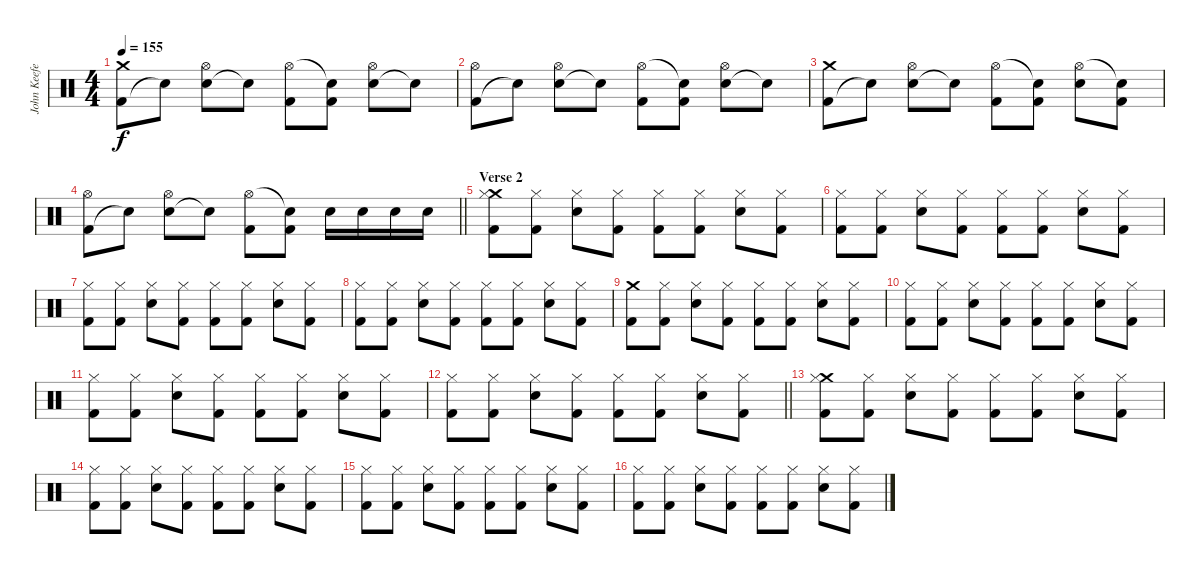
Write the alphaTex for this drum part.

\track ("John Keefe (Percussion)" "John Keefe") {instrument percussion}
\staff {score}
\articulation defaults
\ts (4 4)
\tempo 155
\clef neutral
\ks c
("Kick (hit) 2" "Crash medium (hit)").8{dy f} "Snare (hit)"{t}.8 ("Electric Snare (hit)" "Hi-Hat (open)").8 "Snare (hit)"{t}.8 ("Kick (hit) 2" "Hi-Hat (open)").8 ("Kick (hit) 2" "Snare (hit)"{t}).8 ("Electric Snare (hit)" "Hi-Hat (open)").8 "Snare (hit)"{t}.8 |
("Kick (hit) 2" "Hi-Hat (open)").8 "Snare (hit)"{t}.8 ("Electric Snare (hit)" "Hi-Hat (open)").8 "Snare (hit)"{t}.8 ("Kick (hit) 2" "Hi-Hat (open)").8 ("Kick (hit) 2" "Snare (hit)"{t}).8 ("Electric Snare (hit)" "Hi-Hat (open)").8 "Snare (hit)"{t}.8 |
("Kick (hit) 2" "Crash medium (hit)").8 "Snare (hit)"{t}.8 ("Electric Snare (hit)" "Hi-Hat (open)").8 "Snare (hit)"{t}.8 ("Kick (hit) 2" "Hi-Hat (open)").8 ("Kick (hit) 2" "Snare (hit)"{t}).8 ("Electric Snare (hit)" "Hi-Hat (open)").8 ("Kick (hit) 2" "Snare (hit)"{t}).8 |
\barLineRight lightlight
("Kick (hit) 2" "Hi-Hat (open)").8 "Snare (hit)"{t}.8 ("Electric Snare (hit)" "Hi-Hat (open)").8 "Snare (hit)"{t}.8 ("Kick (hit) 2" "Hi-Hat (open)").8 ("Kick (hit) 2" "Snare (hit)"{t}).8 "Electric Snare (hit)".16 "Electric Snare (hit)".16 "Electric Snare (hit)".16 "Electric Snare (hit)".16 |
\section ("" "Verse 2")
("Kick (hit) 2" "Crash medium (hit)" "Hi-Hat (closed)").8 ("Kick (hit) 2" "Hi-Hat (closed)").8 ("Electric Snare (hit)" "Hi-Hat (closed)").8 ("Kick (hit) 2" "Hi-Hat (closed)").8 ("Kick (hit) 2" "Hi-Hat (closed)").8 ("Kick (hit) 2" "Hi-Hat (closed)").8 ("Electric Snare (hit)" "Hi-Hat (closed)").8 ("Kick (hit) 2" "Hi-Hat (closed)").8 |
("Kick (hit) 2" "Hi-Hat (closed)").8 ("Kick (hit) 2" "Hi-Hat (closed)").8 ("Electric Snare (hit)" "Hi-Hat (closed)").8 ("Kick (hit) 2" "Hi-Hat (closed)").8 ("Kick (hit) 2" "Hi-Hat (closed)").8 ("Kick (hit) 2" "Hi-Hat (closed)").8 ("Electric Snare (hit)" "Hi-Hat (closed)").8 ("Kick (hit) 2" "Hi-Hat (closed)").8 |
("Kick (hit) 2" "Hi-Hat (closed)").8 ("Kick (hit) 2" "Hi-Hat (closed)").8 ("Electric Snare (hit)" "Hi-Hat (closed)").8 ("Kick (hit) 2" "Hi-Hat (closed)").8 ("Kick (hit) 2" "Hi-Hat (closed)").8 ("Kick (hit) 2" "Hi-Hat (closed)").8 ("Electric Snare (hit)" "Hi-Hat (closed)").8 ("Kick (hit) 2" "Hi-Hat (closed)").8 |
("Kick (hit) 2" "Hi-Hat (closed)").8 ("Kick (hit) 2" "Hi-Hat (closed)").8 ("Electric Snare (hit)" "Hi-Hat (closed)").8 ("Kick (hit) 2" "Hi-Hat (closed)").8 ("Kick (hit) 2" "Hi-Hat (closed)").8 ("Kick (hit) 2" "Hi-Hat (closed)").8 ("Electric Snare (hit)" "Hi-Hat (closed)").8 ("Kick (hit) 2" "Hi-Hat (closed)").8 |
("Kick (hit) 2" "Crash medium (hit)").8 ("Kick (hit) 2" "Hi-Hat (closed)").8 ("Electric Snare (hit)" "Hi-Hat (closed)").8 ("Kick (hit) 2" "Hi-Hat (closed)").8 ("Kick (hit) 2" "Hi-Hat (closed)").8 ("Kick (hit) 2" "Hi-Hat (closed)").8 ("Electric Snare (hit)" "Hi-Hat (closed)").8 ("Kick (hit) 2" "Hi-Hat (closed)").8 |
("Kick (hit) 2" "Hi-Hat (closed)").8 ("Kick (hit) 2" "Hi-Hat (closed)").8 ("Electric Snare (hit)" "Hi-Hat (closed)").8 ("Kick (hit) 2" "Hi-Hat (closed)").8 ("Kick (hit) 2" "Hi-Hat (closed)").8 ("Kick (hit) 2" "Hi-Hat (closed)").8 ("Electric Snare (hit)" "Hi-Hat (closed)").8 ("Kick (hit) 2" "Hi-Hat (closed)").8 |
("Kick (hit) 2" "Hi-Hat (closed)").8 ("Kick (hit) 2" "Hi-Hat (closed)").8 ("Electric Snare (hit)" "Hi-Hat (closed)").8 ("Kick (hit) 2" "Hi-Hat (closed)").8 ("Kick (hit) 2" "Hi-Hat (closed)").8 ("Kick (hit) 2" "Hi-Hat (closed)").8 ("Electric Snare (hit)" "Hi-Hat (closed)").8 ("Kick (hit) 2" "Hi-Hat (closed)").8 |
\barLineRight lightlight
("Kick (hit) 2" "Hi-Hat (closed)").8 ("Kick (hit) 2" "Hi-Hat (closed)").8 ("Electric Snare (hit)" "Hi-Hat (closed)").8 ("Kick (hit) 2" "Hi-Hat (closed)").8 ("Kick (hit) 2" "Hi-Hat (closed)").8 ("Kick (hit) 2" "Hi-Hat (closed)").8 ("Electric Snare (hit)" "Hi-Hat (closed)").8 ("Kick (hit) 2" "Hi-Hat (closed)").8 |
("Kick (hit) 2" "Crash medium (hit)" "Hi-Hat (closed)").8 ("Kick (hit) 2" "Hi-Hat (closed)").8 ("Electric Snare (hit)" "Hi-Hat (closed)").8 ("Kick (hit) 2" "Hi-Hat (closed)").8 ("Kick (hit) 2" "Hi-Hat (closed)").8 ("Kick (hit) 2" "Hi-Hat (closed)").8 ("Electric Snare (hit)" "Hi-Hat (closed)").8 ("Kick (hit) 2" "Hi-Hat (closed)").8 |
("Kick (hit) 2" "Hi-Hat (closed)").8 ("Kick (hit) 2" "Hi-Hat (closed)").8 ("Electric Snare (hit)" "Hi-Hat (closed)").8 ("Kick (hit) 2" "Hi-Hat (closed)").8 ("Kick (hit) 2" "Hi-Hat (closed)").8 ("Kick (hit) 2" "Hi-Hat (closed)").8 ("Electric Snare (hit)" "Hi-Hat (closed)").8 ("Kick (hit) 2" "Hi-Hat (closed)").8 |
("Kick (hit) 2" "Hi-Hat (closed)").8 ("Kick (hit) 2" "Hi-Hat (closed)").8 ("Electric Snare (hit)" "Hi-Hat (closed)").8 ("Kick (hit) 2" "Hi-Hat (closed)").8 ("Kick (hit) 2" "Hi-Hat (closed)").8 ("Kick (hit) 2" "Hi-Hat (closed)").8 ("Electric Snare (hit)" "Hi-Hat (closed)").8 ("Kick (hit) 2" "Hi-Hat (closed)").8 |
("Kick (hit) 2" "Hi-Hat (closed)").8 ("Kick (hit) 2" "Hi-Hat (closed)").8 ("Electric Snare (hit)" "Hi-Hat (closed)").8 ("Kick (hit) 2" "Hi-Hat (closed)").8 ("Kick (hit) 2" "Hi-Hat (closed)").8 ("Kick (hit) 2" "Hi-Hat (closed)").8 ("Electric Snare (hit)" "Hi-Hat (closed)").8 ("Kick (hit) 2" "Hi-Hat (closed)").8
